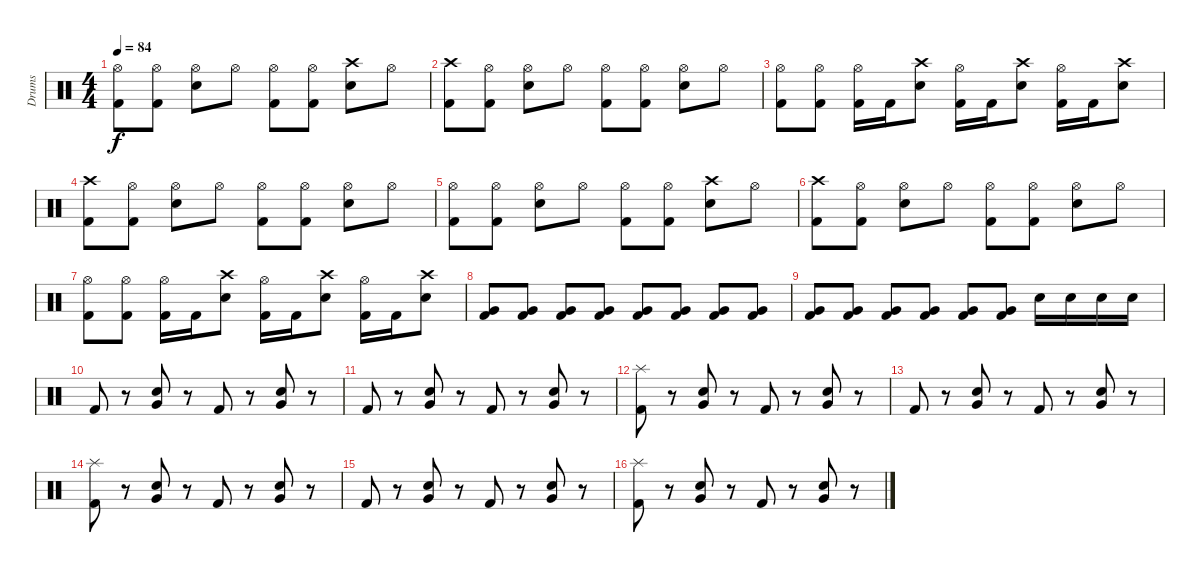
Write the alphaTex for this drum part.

\track ("Drums" "Drums") {instrument percussion}
\staff {score}
\articulation defaults
\ts (4 4)
\tempo 84
\clef neutral
\ks c
("Hi-Hat (open)" "Kick (hit) 2").8{dy f} ("Hi-Hat (open)" "Kick (hit) 2").8 ("Hi-Hat (open)" "Snare (hit) 2").8 "Hi-Hat (open)".8 ("Hi-Hat (open)" "Kick (hit) 2").8 ("Hi-Hat (open)" "Kick (hit) 2").8 ("Crash high (hit)" "Snare (hit) 2").8 "Hi-Hat (open)".8 |
("Crash high (hit)" "Kick (hit) 2").8 ("Hi-Hat (open)" "Kick (hit) 2").8 ("Hi-Hat (open)" "Snare (hit) 2").8 "Hi-Hat (open)".8 ("Hi-Hat (open)" "Kick (hit) 2").8 ("Hi-Hat (open)" "Kick (hit) 2").8 ("Hi-Hat (open)" "Snare (hit) 2").8 "Hi-Hat (open)".8 |
("Hi-Hat (open)" "Kick (hit) 2").8 ("Hi-Hat (open)" "Kick (hit) 2").8 ("Hi-Hat (open)" "Kick (hit) 2").16 "Kick (hit) 2".16 ("Crash high (hit)" "Snare (hit) 2").8 ("Hi-Hat (open)" "Kick (hit) 2").16 "Kick (hit) 2".16 ("Crash high (hit)" "Snare (hit) 2").8 ("Hi-Hat (open)" "Kick (hit) 2").16 "Kick (hit) 2".16 ("Crash high (hit)" "Snare (hit) 2").8 |
("Crash high (hit)" "Kick (hit) 2").8 ("Hi-Hat (open)" "Kick (hit) 2").8 ("Hi-Hat (open)" "Snare (hit) 2").8 "Hi-Hat (open)".8 ("Hi-Hat (open)" "Kick (hit) 2").8 ("Hi-Hat (open)" "Kick (hit) 2").8 ("Hi-Hat (open)" "Snare (hit) 2").8 "Hi-Hat (open)".8 |
("Hi-Hat (open)" "Kick (hit) 2").8 ("Hi-Hat (open)" "Kick (hit) 2").8 ("Hi-Hat (open)" "Snare (hit) 2").8 "Hi-Hat (open)".8 ("Hi-Hat (open)" "Kick (hit) 2").8 ("Hi-Hat (open)" "Kick (hit) 2").8 ("Crash high (hit)" "Snare (hit) 2").8 "Hi-Hat (open)".8 |
("Crash high (hit)" "Kick (hit) 2").8 ("Hi-Hat (open)" "Kick (hit) 2").8 ("Hi-Hat (open)" "Snare (hit) 2").8 "Hi-Hat (open)".8 ("Hi-Hat (open)" "Kick (hit) 2").8 ("Hi-Hat (open)" "Kick (hit) 2").8 ("Hi-Hat (open)" "Snare (hit) 2").8 "Hi-Hat (open)".8 |
("Hi-Hat (open)" "Kick (hit) 2").8 ("Hi-Hat (open)" "Kick (hit) 2").8 ("Hi-Hat (open)" "Kick (hit) 2").16 "Kick (hit) 2".16 ("Crash high (hit)" "Snare (hit) 2").8 ("Hi-Hat (open)" "Kick (hit) 2").16 "Kick (hit) 2".16 ("Crash high (hit)" "Snare (hit) 2").8 ("Hi-Hat (open)" "Kick (hit) 2").16 "Kick (hit) 2".16 ("Crash high (hit)" "Snare (hit) 2").8 |
("Very Low Tom (hit)" "Kick (hit) 2").8 ("Very Low Tom (hit)" "Kick (hit) 2").8 ("Very Low Tom (hit)" "Kick (hit) 2").8 ("Very Low Tom (hit)" "Kick (hit) 2").8 ("Very Low Tom (hit)" "Kick (hit) 2").8 ("Very Low Tom (hit)" "Kick (hit) 2").8 ("Very Low Tom (hit)" "Kick (hit) 2").8 ("Very Low Tom (hit)" "Kick (hit) 2").8 |
("Very Low Tom (hit)" "Kick (hit) 2").8 ("Very Low Tom (hit)" "Kick (hit) 2").8 ("Very Low Tom (hit)" "Kick (hit) 2").8 ("Very Low Tom (hit)" "Kick (hit) 2").8 ("Very Low Tom (hit)" "Kick (hit) 2").8 ("Very Low Tom (hit)" "Kick (hit) 2").8 "Snare (hit) 2".16 "Snare (hit) 2".16 "Snare (hit) 2".16 "Snare (hit) 2".16 |
"Kick (hit) 2".8 r.8 ("Very Low Tom (hit)" "Snare (hit) 2").8 r.8 "Kick (hit) 2".8 r.8 ("Very Low Tom (hit)" "Snare (hit) 2").8 r.8 |
"Kick (hit) 2".8 r.8 ("Very Low Tom (hit)" "Snare (hit) 2").8 r.8 "Kick (hit) 2".8 r.8 ("Very Low Tom (hit)" "Snare (hit) 2").8 r.8 |
("Splash (hit)" "Kick (hit) 2").8 r.8 ("Very Low Tom (hit)" "Snare (hit) 2").8 r.8 "Kick (hit) 2".8 r.8 ("Very Low Tom (hit)" "Snare (hit) 2").8 r.8 |
"Kick (hit) 2".8 r.8 ("Very Low Tom (hit)" "Snare (hit) 2").8 r.8 "Kick (hit) 2".8 r.8 ("Very Low Tom (hit)" "Snare (hit) 2").8 r.8 |
("Splash (hit)" "Kick (hit) 2").8 r.8 ("Very Low Tom (hit)" "Snare (hit) 2").8 r.8 "Kick (hit) 2".8 r.8 ("Very Low Tom (hit)" "Snare (hit) 2").8 r.8 |
"Kick (hit) 2".8 r.8 ("Very Low Tom (hit)" "Snare (hit) 2").8 r.8 "Kick (hit) 2".8 r.8 ("Very Low Tom (hit)" "Snare (hit) 2").8 r.8 |
("Splash (hit)" "Kick (hit) 2").8 r.8 ("Very Low Tom (hit)" "Snare (hit) 2").8 r.8 "Kick (hit) 2".8 r.8 ("Very Low Tom (hit)" "Snare (hit) 2").8 r.8
